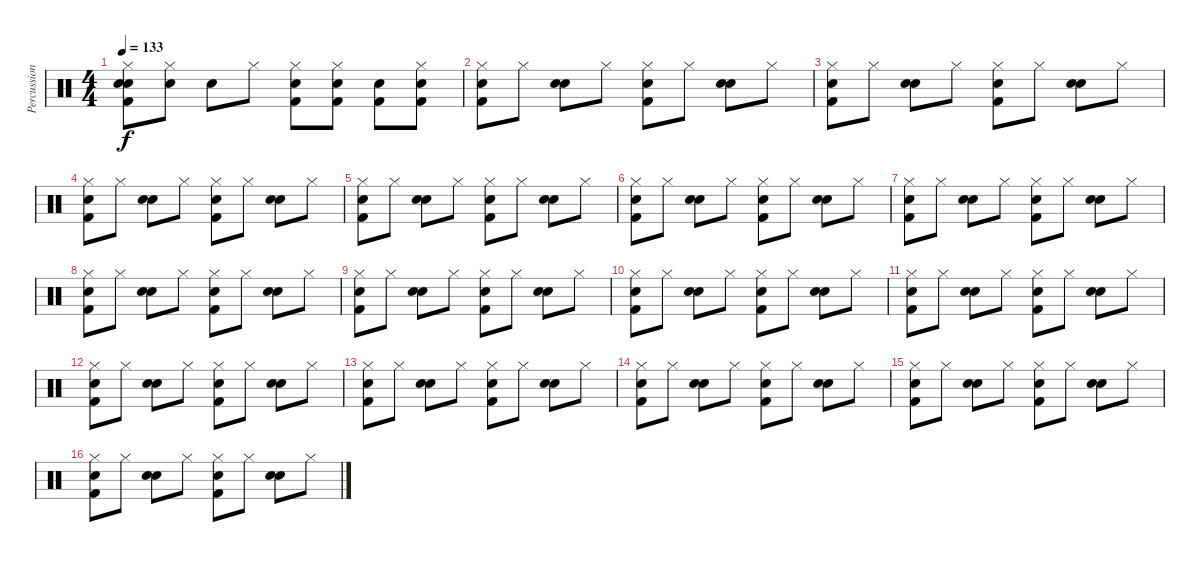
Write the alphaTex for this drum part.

\track ("Percussions" "Percussion") {instrument percussion}
\staff {score}
\articulation defaults
\ts (4 4)
\tempo 133
\clef neutral
\ks c
("Snare (hit) 2" "Electric Snare (hit)" "Kick (hit) 2" "Hi-Hat (closed)").8{dy f} ("Electric Snare (hit)" "Hi-Hat (closed)").8 "Snare (hit) 2".8 "Hi-Hat (closed)".8 ("Snare (hit) 2" "Kick (hit) 2" "Hi-Hat (closed)").8 ("Snare (hit) 2" "Kick (hit) 2" "Hi-Hat (closed)").8 ("Snare (hit) 2" "Kick (hit) 2").8 ("Snare (hit) 2" "Kick (hit) 2" "Hi-Hat (closed)").8 |
("Snare (hit) 2" "Kick (hit) 2" "Hi-Hat (closed)").8 "Hi-Hat (closed)".8 ("Electric Snare (hit)" "Electric Snare (hit)").8 "Hi-Hat (closed)".8 ("Snare (hit) 2" "Kick (hit) 2" "Hi-Hat (closed)").8 "Hi-Hat (closed)".8 ("Electric Snare (hit)" "Electric Snare (hit)").8 "Hi-Hat (closed)".8 |
("Snare (hit) 2" "Kick (hit) 2" "Hi-Hat (closed)").8 "Hi-Hat (closed)".8 ("Electric Snare (hit)" "Electric Snare (hit)").8 "Hi-Hat (closed)".8 ("Snare (hit) 2" "Kick (hit) 2" "Hi-Hat (closed)").8 "Hi-Hat (closed)".8 ("Electric Snare (hit)" "Electric Snare (hit)").8 "Hi-Hat (closed)".8 |
("Snare (hit) 2" "Kick (hit) 2" "Hi-Hat (closed)").8 "Hi-Hat (closed)".8 ("Electric Snare (hit)" "Electric Snare (hit)").8 "Hi-Hat (closed)".8 ("Snare (hit) 2" "Kick (hit) 2" "Hi-Hat (closed)").8 "Hi-Hat (closed)".8 ("Electric Snare (hit)" "Electric Snare (hit)").8 "Hi-Hat (closed)".8 |
("Snare (hit) 2" "Kick (hit) 2" "Hi-Hat (closed)").8 "Hi-Hat (closed)".8 ("Electric Snare (hit)" "Electric Snare (hit)").8 "Hi-Hat (closed)".8 ("Snare (hit) 2" "Kick (hit) 2" "Hi-Hat (closed)").8 "Hi-Hat (closed)".8 ("Electric Snare (hit)" "Electric Snare (hit)").8 "Hi-Hat (closed)".8 |
("Snare (hit) 2" "Kick (hit) 2" "Hi-Hat (closed)").8 "Hi-Hat (closed)".8 ("Electric Snare (hit)" "Electric Snare (hit)").8 "Hi-Hat (closed)".8 ("Snare (hit) 2" "Kick (hit) 2" "Hi-Hat (closed)").8 "Hi-Hat (closed)".8 ("Electric Snare (hit)" "Electric Snare (hit)").8 "Hi-Hat (closed)".8 |
("Snare (hit) 2" "Kick (hit) 2" "Hi-Hat (closed)").8 "Hi-Hat (closed)".8 ("Electric Snare (hit)" "Electric Snare (hit)").8 "Hi-Hat (closed)".8 ("Snare (hit) 2" "Kick (hit) 2" "Hi-Hat (closed)").8 "Hi-Hat (closed)".8 ("Electric Snare (hit)" "Electric Snare (hit)").8 "Hi-Hat (closed)".8 |
("Snare (hit) 2" "Kick (hit) 2" "Hi-Hat (closed)").8 "Hi-Hat (closed)".8 ("Electric Snare (hit)" "Electric Snare (hit)").8 "Hi-Hat (closed)".8 ("Snare (hit) 2" "Kick (hit) 2" "Hi-Hat (closed)").8 "Hi-Hat (closed)".8 ("Electric Snare (hit)" "Electric Snare (hit)").8 "Hi-Hat (closed)".8 |
("Snare (hit) 2" "Kick (hit) 2" "Hi-Hat (closed)").8 "Hi-Hat (closed)".8 ("Electric Snare (hit)" "Electric Snare (hit)").8 "Hi-Hat (closed)".8 ("Snare (hit) 2" "Kick (hit) 2" "Hi-Hat (closed)").8 "Hi-Hat (closed)".8 ("Electric Snare (hit)" "Electric Snare (hit)").8 "Hi-Hat (closed)".8 |
("Snare (hit) 2" "Kick (hit) 2" "Hi-Hat (closed)").8 "Hi-Hat (closed)".8 ("Electric Snare (hit)" "Electric Snare (hit)").8 "Hi-Hat (closed)".8 ("Snare (hit) 2" "Kick (hit) 2" "Hi-Hat (closed)").8 "Hi-Hat (closed)".8 ("Electric Snare (hit)" "Electric Snare (hit)").8 "Hi-Hat (closed)".8 |
("Snare (hit) 2" "Kick (hit) 2" "Hi-Hat (closed)").8 "Hi-Hat (closed)".8 ("Electric Snare (hit)" "Electric Snare (hit)").8 "Hi-Hat (closed)".8 ("Snare (hit) 2" "Kick (hit) 2" "Hi-Hat (closed)").8 "Hi-Hat (closed)".8 ("Electric Snare (hit)" "Electric Snare (hit)").8 "Hi-Hat (closed)".8 |
("Snare (hit) 2" "Kick (hit) 2" "Hi-Hat (closed)").8 "Hi-Hat (closed)".8 ("Electric Snare (hit)" "Electric Snare (hit)").8 "Hi-Hat (closed)".8 ("Snare (hit) 2" "Kick (hit) 2" "Hi-Hat (closed)").8 "Hi-Hat (closed)".8 ("Electric Snare (hit)" "Electric Snare (hit)").8 "Hi-Hat (closed)".8 |
("Snare (hit) 2" "Kick (hit) 2" "Hi-Hat (closed)").8 "Hi-Hat (closed)".8 ("Electric Snare (hit)" "Electric Snare (hit)").8 "Hi-Hat (closed)".8 ("Snare (hit) 2" "Kick (hit) 2" "Hi-Hat (closed)").8 "Hi-Hat (closed)".8 ("Electric Snare (hit)" "Electric Snare (hit)").8 "Hi-Hat (closed)".8 |
("Snare (hit) 2" "Kick (hit) 2" "Hi-Hat (closed)").8 "Hi-Hat (closed)".8 ("Electric Snare (hit)" "Electric Snare (hit)").8 "Hi-Hat (closed)".8 ("Snare (hit) 2" "Kick (hit) 2" "Hi-Hat (closed)").8 "Hi-Hat (closed)".8 ("Electric Snare (hit)" "Electric Snare (hit)").8 "Hi-Hat (closed)".8 |
("Snare (hit) 2" "Kick (hit) 2" "Hi-Hat (closed)").8 "Hi-Hat (closed)".8 ("Electric Snare (hit)" "Electric Snare (hit)").8 "Hi-Hat (closed)".8 ("Snare (hit) 2" "Kick (hit) 2" "Hi-Hat (closed)").8 "Hi-Hat (closed)".8 ("Electric Snare (hit)" "Electric Snare (hit)").8 "Hi-Hat (closed)".8 |
("Snare (hit) 2" "Kick (hit) 2" "Hi-Hat (closed)").8 "Hi-Hat (closed)".8 ("Electric Snare (hit)" "Electric Snare (hit)").8 "Hi-Hat (closed)".8 ("Snare (hit) 2" "Kick (hit) 2" "Hi-Hat (closed)").8 "Hi-Hat (closed)".8 ("Electric Snare (hit)" "Electric Snare (hit)").8 "Hi-Hat (closed)".8
